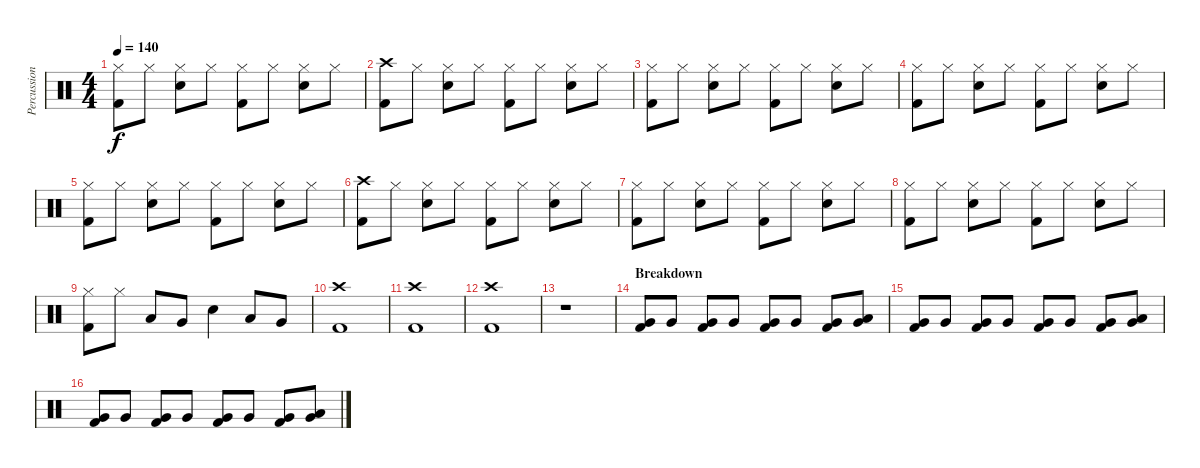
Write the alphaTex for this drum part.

\track ("Percussion" "Percussion") {instrument percussion}
\staff {score}
\articulation defaults
\ts (4 4)
\tempo 140
\clef neutral
\ks c
("Hi-Hat (closed)" "Kick (hit) 2").8{dy f} "Hi-Hat (closed)".8 ("Hi-Hat (closed)" "Electric Snare (hit)").8 "Hi-Hat (closed)".8 ("Hi-Hat (closed)" "Kick (hit) 2").8 "Hi-Hat (closed)".8 ("Hi-Hat (closed)" "Electric Snare (hit)").8 "Hi-Hat (closed)".8 |
("Crash high (hit)" "Kick (hit) 2").8 "Hi-Hat (closed)".8 ("Hi-Hat (closed)" "Electric Snare (hit)").8 "Hi-Hat (closed)".8 ("Hi-Hat (closed)" "Kick (hit) 2").8 "Hi-Hat (closed)".8 ("Hi-Hat (closed)" "Electric Snare (hit)").8 "Hi-Hat (closed)".8 |
("Hi-Hat (closed)" "Kick (hit) 2").8 "Hi-Hat (closed)".8 ("Hi-Hat (closed)" "Electric Snare (hit)").8 "Hi-Hat (closed)".8 ("Hi-Hat (closed)" "Kick (hit) 2").8 "Hi-Hat (closed)".8 ("Hi-Hat (closed)" "Electric Snare (hit)").8 "Hi-Hat (closed)".8 |
("Hi-Hat (closed)" "Kick (hit) 2").8 "Hi-Hat (closed)".8 ("Hi-Hat (closed)" "Electric Snare (hit)").8 "Hi-Hat (closed)".8 ("Hi-Hat (closed)" "Kick (hit) 2").8 "Hi-Hat (closed)".8 ("Hi-Hat (closed)" "Electric Snare (hit)").8 "Hi-Hat (closed)".8 |
("Hi-Hat (closed)" "Kick (hit) 2").8 "Hi-Hat (closed)".8 ("Hi-Hat (closed)" "Electric Snare (hit)").8 "Hi-Hat (closed)".8 ("Hi-Hat (closed)" "Kick (hit) 2").8 "Hi-Hat (closed)".8 ("Hi-Hat (closed)" "Electric Snare (hit)").8 "Hi-Hat (closed)".8 |
("Crash high (hit)" "Kick (hit) 2").8 "Hi-Hat (closed)".8 ("Hi-Hat (closed)" "Electric Snare (hit)").8 "Hi-Hat (closed)".8 ("Hi-Hat (closed)" "Kick (hit) 2").8 "Hi-Hat (closed)".8 ("Hi-Hat (closed)" "Electric Snare (hit)").8 "Hi-Hat (closed)".8 |
("Hi-Hat (closed)" "Kick (hit) 2").8 "Hi-Hat (closed)".8 ("Hi-Hat (closed)" "Electric Snare (hit)").8 "Hi-Hat (closed)".8 ("Hi-Hat (closed)" "Kick (hit) 2").8 "Hi-Hat (closed)".8 ("Hi-Hat (closed)" "Electric Snare (hit)").8 "Hi-Hat (closed)".8 |
("Hi-Hat (closed)" "Kick (hit) 2").8 "Hi-Hat (closed)".8 ("Hi-Hat (closed)" "Electric Snare (hit)").8 "Hi-Hat (closed)".8 ("Hi-Hat (closed)" "Kick (hit) 2").8 "Hi-Hat (closed)".8 ("Hi-Hat (closed)" "Electric Snare (hit)").8 "Hi-Hat (closed)".8 |
("Hi-Hat (closed)" "Kick (hit) 2").8 "Hi-Hat (closed)".8 "Low Tom (hit)".8 "Very Low Tom (hit)".8 "Electric Snare (hit)".4 "Low Tom (hit)".8 "Very Low Tom (hit)".8 |
("Crash high (hit)" "Kick (hit) 2").1 |
("Crash high (hit)" "Kick (hit) 2").1 |
("Crash high (hit)" "Kick (hit) 2").1 |
r.1 |
\section ("" "Breakdown")
("Very Low Tom (hit)" "Kick (hit) 2").8 "Very Low Tom (hit)".8 ("Very Low Tom (hit)" "Kick (hit) 2").8 "Very Low Tom (hit)".8 ("Very Low Tom (hit)" "Kick (hit) 2").8 "Very Low Tom (hit)".8 ("Very Low Tom (hit)" "Kick (hit) 2").8 ("Low Tom (hit)" "Very Low Tom (hit)").8 |
("Very Low Tom (hit)" "Kick (hit) 2").8 "Very Low Tom (hit)".8 ("Very Low Tom (hit)" "Kick (hit) 2").8 "Very Low Tom (hit)".8 ("Very Low Tom (hit)" "Kick (hit) 2").8 "Very Low Tom (hit)".8 ("Very Low Tom (hit)" "Kick (hit) 2").8 ("Low Tom (hit)" "Very Low Tom (hit)").8 |
("Very Low Tom (hit)" "Kick (hit) 2").8 "Very Low Tom (hit)".8 ("Very Low Tom (hit)" "Kick (hit) 2").8 "Very Low Tom (hit)".8 ("Very Low Tom (hit)" "Kick (hit) 2").8 "Very Low Tom (hit)".8 ("Very Low Tom (hit)" "Kick (hit) 2").8 ("Low Tom (hit)" "Very Low Tom (hit)").8
